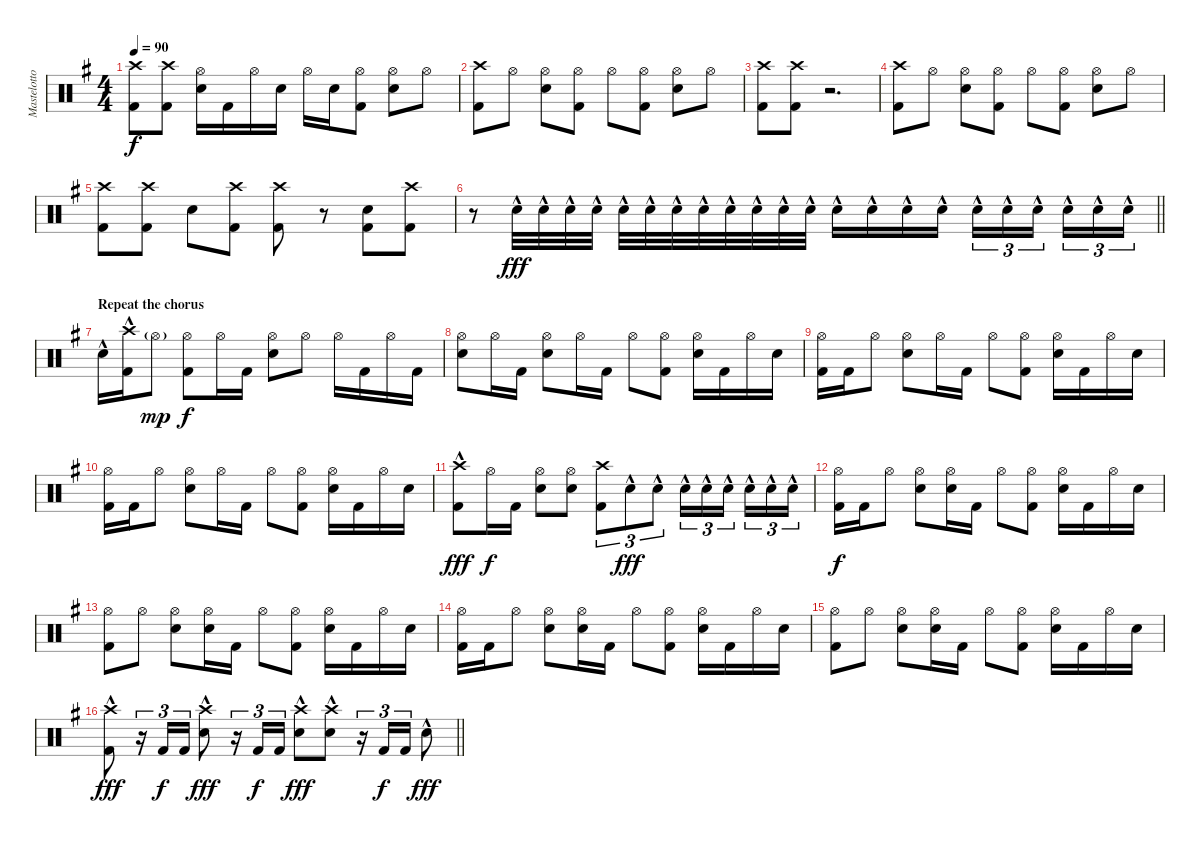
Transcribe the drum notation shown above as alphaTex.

\track ("Mastelotto" "Mastelotto") {instrument percussion}
\staff {score}
\articulation defaults
\ts (4 4)
\tempo 90
\clef neutral
\ks eminor
("Crash high (hit)" "Kick (hit) 2").8{dy f} ("Crash high (hit)" "Kick (hit) 2").8 ("Hi-Hat (open)" "Electric Snare (hit)").16 "Kick (hit) 2".16 "Hi-Hat (open)".16 "Electric Snare (hit)".16 "Hi-Hat (open)".16 "Electric Snare (hit)".16 ("Hi-Hat (open)" "Kick (hit) 2").8 ("Hi-Hat (open)" "Electric Snare (hit)").8 "Hi-Hat (open)".8 |
("Crash high (hit)" "Kick (hit) 2").8 "Hi-Hat (open)".8 ("Hi-Hat (open)" "Electric Snare (hit)").8 ("Hi-Hat (open)" "Kick (hit) 2").8 "Hi-Hat (open)".8 ("Hi-Hat (open)" "Kick (hit) 2").8 ("Hi-Hat (open)" "Electric Snare (hit)").8 "Hi-Hat (open)".8 |
("Crash high (hit)" "Kick (hit) 2").8 ("Crash high (hit)" "Kick (hit) 2").8 r.2{d} |
("Crash high (hit)" "Kick (hit) 2").8 "Hi-Hat (open)".8 ("Hi-Hat (open)" "Electric Snare (hit)").8 ("Hi-Hat (open)" "Kick (hit) 2").8 "Hi-Hat (open)".8 ("Hi-Hat (open)" "Kick (hit) 2").8 ("Hi-Hat (open)" "Electric Snare (hit)").8 "Hi-Hat (open)".8 |
("Crash high (hit)" "Kick (hit) 2").8 ("Crash high (hit)" "Kick (hit) 2").8 "Electric Snare (hit)".8 ("Crash high (hit)" "Kick (hit) 2").8 ("Crash high (hit)" "Kick (hit) 2").8 r.8 ("Electric Snare (hit)" "Kick (hit) 2").8 ("Crash high (hit)" "Kick (hit) 2").8 |
\barLineRight lightlight
r.8 "Electric Snare (hit)"{hac}.32{dy fff} "Electric Snare (hit)"{hac}.32 "Electric Snare (hit)"{hac}.32 "Electric Snare (hit)"{hac}.32 "Electric Snare (hit)"{hac}.32 "Electric Snare (hit)"{hac}.32 "Electric Snare (hit)"{hac}.32 "Electric Snare (hit)"{hac}.32 "Electric Snare (hit)"{hac}.32 "Electric Snare (hit)"{hac}.32 "Electric Snare (hit)"{hac}.32 "Electric Snare (hit)"{hac}.32 "Electric Snare (hit)"{hac}.16 "Electric Snare (hit)"{hac}.16 "Electric Snare (hit)"{hac}.16 "Electric Snare (hit)"{hac}.16 "Electric Snare (hit)"{hac}.16{tu (3 2)} "Electric Snare (hit)"{hac}.16{tu (3 2)} "Electric Snare (hit)"{hac}.16{tu (3 2) beam splitsecondary} "Electric Snare (hit)"{hac}.16{tu (3 2)} "Electric Snare (hit)"{hac}.16{tu (3 2)} "Electric Snare (hit)"{hac}.16{tu (3 2)} |
\section ("" "Repeat the chorus")
"Electric Snare (hit)"{hac}.16 ("Crash high (hit)"{hac} "Kick (hit) 2").16 "Hi-Hat (open)"{g}.8{dy mp} ("Hi-Hat (open)" "Kick (hit) 2").8{dy f} "Hi-Hat (open)".16 "Kick (hit) 2".16 ("Hi-Hat (open)" "Electric Snare (hit)").8 "Hi-Hat (open)".8 "Hi-Hat (open)".16 "Kick (hit) 2".16 "Hi-Hat (open)".16 "Kick (hit) 2".16 |
("Hi-Hat (open)" "Electric Snare (hit)").8 "Hi-Hat (open)".16 "Kick (hit) 2".16 ("Hi-Hat (open)" "Electric Snare (hit)").8 "Hi-Hat (open)".16 "Kick (hit) 2".16 "Hi-Hat (open)".8 ("Hi-Hat (open)" "Kick (hit) 2").8 ("Hi-Hat (open)" "Electric Snare (hit)").16 "Kick (hit) 2".16 "Hi-Hat (open)".16 "Electric Snare (hit)".16 |
("Hi-Hat (open)" "Kick (hit) 2").16 "Kick (hit) 2".16 "Hi-Hat (open)".8 ("Hi-Hat (open)" "Electric Snare (hit)").8 "Hi-Hat (open)".16 "Kick (hit) 2".16 "Hi-Hat (open)".8 ("Hi-Hat (open)" "Kick (hit) 2").8 ("Hi-Hat (open)" "Electric Snare (hit)").16 "Kick (hit) 2".16 "Hi-Hat (open)".16 "Electric Snare (hit)".16 |
("Hi-Hat (open)" "Kick (hit) 2").16 "Kick (hit) 2".16 "Hi-Hat (open)".8 ("Hi-Hat (open)" "Electric Snare (hit)").8 "Hi-Hat (open)".16 "Kick (hit) 2".16 "Hi-Hat (open)".8 ("Hi-Hat (open)" "Kick (hit) 2").8 ("Hi-Hat (open)" "Electric Snare (hit)").16 "Kick (hit) 2".16 "Hi-Hat (open)".16 "Electric Snare (hit)".16 |
("Crash high (hit)"{hac} "Kick (hit) 2").8{dy fff} "Hi-Hat (open)".16{dy f} "Kick (hit) 2".16 ("Hi-Hat (open)" "Electric Snare (hit)").8 ("Hi-Hat (open)" "Electric Snare (hit)").8 ("Crash high (hit)" "Kick (hit) 2").8{tu (3 2)} "Electric Snare (hit)"{hac}.8{tu (3 2) dy fff} "Electric Snare (hit)"{hac}.8{tu (3 2)} "Electric Snare (hit)"{hac}.16{tu (3 2)} "Electric Snare (hit)"{hac}.16{tu (3 2)} "Electric Snare (hit)"{hac}.16{tu (3 2) beam splitsecondary} "Electric Snare (hit)"{hac}.16{tu (3 2)} "Electric Snare (hit)"{hac}.16{tu (3 2)} "Electric Snare (hit)"{hac}.16{tu (3 2)} |
("Hi-Hat (open)" "Kick (hit) 2").16{dy f} "Kick (hit) 2".16 "Hi-Hat (open)".8 ("Hi-Hat (open)" "Electric Snare (hit)").8 ("Hi-Hat (open)" "Electric Snare (hit)").16 "Kick (hit) 2".16 "Hi-Hat (open)".8 ("Hi-Hat (open)" "Kick (hit) 2").8 ("Hi-Hat (open)" "Electric Snare (hit)").16 "Kick (hit) 2".16 "Hi-Hat (open)".16 "Electric Snare (hit)".16 |
("Hi-Hat (open)" "Kick (hit) 2").8 "Hi-Hat (open)".8 ("Hi-Hat (open)" "Electric Snare (hit)").8 ("Hi-Hat (open)" "Electric Snare (hit)").16 "Kick (hit) 2".16 "Hi-Hat (open)".8 ("Hi-Hat (open)" "Kick (hit) 2").8 ("Hi-Hat (open)" "Electric Snare (hit)").16 "Kick (hit) 2".16 "Hi-Hat (open)".16 "Electric Snare (hit)".16 |
("Hi-Hat (open)" "Kick (hit) 2").16 "Kick (hit) 2".16 "Hi-Hat (open)".8 ("Hi-Hat (open)" "Electric Snare (hit)").8 ("Hi-Hat (open)" "Electric Snare (hit)").16 "Kick (hit) 2".16 "Hi-Hat (open)".8 ("Hi-Hat (open)" "Kick (hit) 2").8 ("Hi-Hat (open)" "Electric Snare (hit)").16 "Kick (hit) 2".16 "Hi-Hat (open)".16 "Electric Snare (hit)".16 |
("Hi-Hat (open)" "Kick (hit) 2").8 "Hi-Hat (open)".8 ("Hi-Hat (open)" "Electric Snare (hit)").8 ("Hi-Hat (open)" "Electric Snare (hit)").16 "Kick (hit) 2".16 "Hi-Hat (open)".8 ("Hi-Hat (open)" "Kick (hit) 2").8 ("Hi-Hat (open)" "Electric Snare (hit)").16 "Kick (hit) 2".16 "Hi-Hat (open)".16 "Electric Snare (hit)".16 |
\barLineRight lightlight
("Crash high (hit)"{hac} "Kick (hit) 2").8{dy fff} r.16{tu (3 2)} "Kick (hit) 2".16{tu (3 2) dy f} "Kick (hit) 2".16{tu (3 2)} ("Crash high (hit)"{hac} "Electric Snare (hit)").8{dy fff} r.16{tu (3 2)} "Kick (hit) 2".16{tu (3 2) dy f} "Kick (hit) 2".16{tu (3 2)} ("Crash high (hit)"{hac} "Electric Snare (hit)").8{dy fff} ("Crash high (hit)"{hac} "Electric Snare (hit)").8 r.16{tu (3 2)} "Kick (hit) 2".16{tu (3 2) dy f} "Kick (hit) 2".16{tu (3 2)} "Electric Snare (hit)"{hac}.8{dy fff}
